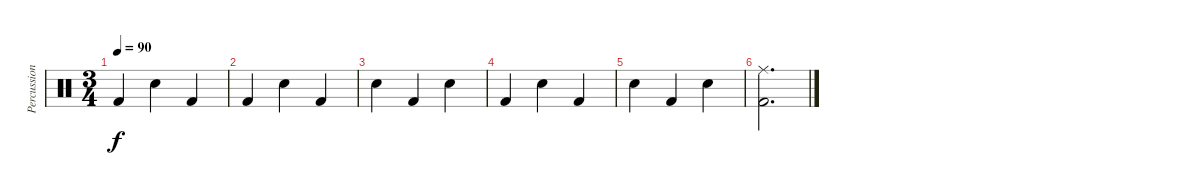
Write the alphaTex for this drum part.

\track ("Percussion" "Percussion") {instrument percussion}
\staff {score}
\articulation defaults
\ts (3 4)
\tempo 90
\clef neutral
\ks c "Kick (hit) 2".4{dy f} "Snare (hit) 2".4 "Kick (hit) 2".4
|
"Kick (hit) 2".4 "Snare (hit) 2".4 "Kick (hit) 2".4 |
"Snare (hit) 2".4 "Kick (hit) 2".4 "Snare (hit) 2".4 |
"Kick (hit) 2".4 "Snare (hit) 2".4 "Kick (hit) 2".4 |
"Snare (hit) 2".4 "Kick (hit) 2".4 "Snare (hit) 2".4 |
("Ride (middle)" "Kick (hit) 2").2{d}
